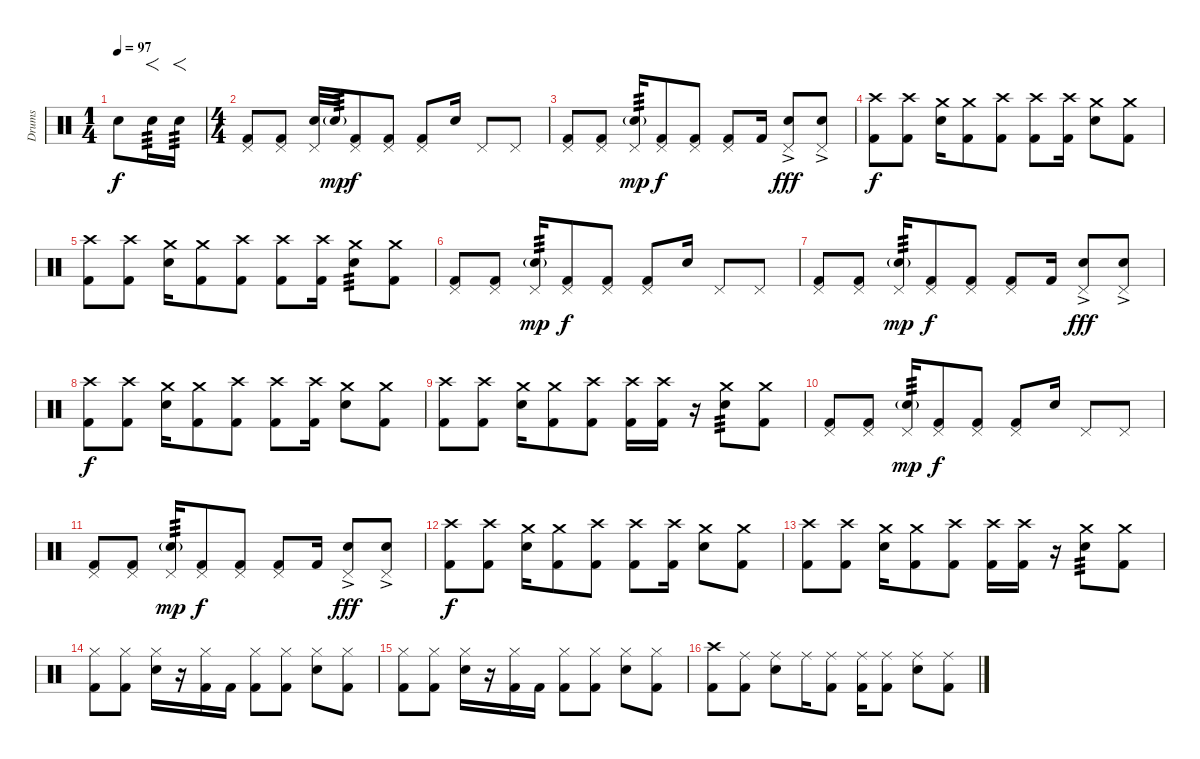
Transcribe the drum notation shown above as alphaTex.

\track ("Drums" "Drums") {instrument percussion}
\staff {score}
\articulation defaults
\ts (1 4)
\tempo 97
\clef neutral
\ks c "Snare (hit) 2".8{dy f} "Snare (hit) 2".16{f tp 3} "Snare (hit) 2".16{f tp 3}
|
\ts (4 4)
("Pedal Hi-Hat (hit)" "Kick (hit) 2").8 ("Pedal Hi-Hat (hit)" "Kick (hit) 2").8 ("Pedal Hi-Hat (hit)" "Snare (hit) 2").32 "Snare (hit) 2"{g}.32{tp 3 dy mp} ("Pedal Hi-Hat (hit)" "Kick (hit) 2").8{dy f} ("Pedal Hi-Hat (hit)" "Kick (hit) 2").8 ("Pedal Hi-Hat (hit)" "Kick (hit) 2").8 "Snare (hit) 2".16 "Pedal Hi-Hat (hit)".8 "Pedal Hi-Hat (hit)".8 |
("Pedal Hi-Hat (hit)" "Kick (hit) 2").8 ("Pedal Hi-Hat (hit)" "Kick (hit) 2").8 ("Pedal Hi-Hat (hit)" "Snare (hit) 2"{g}).16{tp 3 dy mp} ("Pedal Hi-Hat (hit)" "Kick (hit) 2").8{dy f} ("Pedal Hi-Hat (hit)" "Kick (hit) 2").8 ("Pedal Hi-Hat (hit)" "Kick (hit) 2").8 "Kick (hit) 2".16 ("Pedal Hi-Hat (hit)" "Snare (hit) 2"{ac}).8{dy fff} ("Pedal Hi-Hat (hit)" "Snare (hit) 2"{ac}).8 |
("Crash high (hit)" "Kick (hit) 2").8{dy f volume 16} ("Crash high (hit)" "Kick (hit) 2").8 ("Crash medium (hit)" "Snare (hit) 2").16 ("Crash medium (hit)" "Kick (hit) 2").8 ("Crash high (hit)" "Kick (hit) 2").8 ("Crash high (hit)" "Kick (hit) 2").8 ("Crash high (hit)" "Kick (hit) 2").16 ("Crash medium (hit)" "Snare (hit) 2").8 ("Crash medium (hit)" "Kick (hit) 2").8 |
("Crash high (hit)" "Kick (hit) 2").8 ("Crash high (hit)" "Kick (hit) 2").8 ("Crash medium (hit)" "Snare (hit) 2").16 ("Crash medium (hit)" "Kick (hit) 2").8 ("Crash high (hit)" "Kick (hit) 2").8 ("Crash high (hit)" "Kick (hit) 2").8 ("Crash high (hit)" "Kick (hit) 2").16 ("Crash medium (hit)" "Snare (hit) 2").8{tp 3} ("Crash medium (hit)" "Kick (hit) 2").8 |
("Pedal Hi-Hat (hit)" "Kick (hit) 2").8 ("Pedal Hi-Hat (hit)" "Kick (hit) 2").8 ("Pedal Hi-Hat (hit)" "Snare (hit) 2"{g}).16{tp 3 dy mp} ("Pedal Hi-Hat (hit)" "Kick (hit) 2").8{dy f} ("Pedal Hi-Hat (hit)" "Kick (hit) 2").8 ("Pedal Hi-Hat (hit)" "Kick (hit) 2").8 "Snare (hit) 2".16 "Pedal Hi-Hat (hit)".8 "Pedal Hi-Hat (hit)".8 |
("Pedal Hi-Hat (hit)" "Kick (hit) 2").8 ("Pedal Hi-Hat (hit)" "Kick (hit) 2").8 ("Pedal Hi-Hat (hit)" "Snare (hit) 2"{g}).16{tp 3 dy mp} ("Pedal Hi-Hat (hit)" "Kick (hit) 2").8{dy f} ("Pedal Hi-Hat (hit)" "Kick (hit) 2").8 ("Pedal Hi-Hat (hit)" "Kick (hit) 2").8 "Kick (hit) 2".16 ("Pedal Hi-Hat (hit)" "Snare (hit) 2"{ac}).8{dy fff} ("Pedal Hi-Hat (hit)" "Snare (hit) 2"{ac}).8 |
("Crash high (hit)" "Kick (hit) 2").8{dy f volume 16} ("Crash high (hit)" "Kick (hit) 2").8 ("Crash medium (hit)" "Snare (hit) 2").16 ("Crash medium (hit)" "Kick (hit) 2").8 ("Crash high (hit)" "Kick (hit) 2").8 ("Crash high (hit)" "Kick (hit) 2").8 ("Crash high (hit)" "Kick (hit) 2").16 ("Crash medium (hit)" "Snare (hit) 2").8 ("Crash medium (hit)" "Kick (hit) 2").8 |
("Crash high (hit)" "Kick (hit) 2").8 ("Crash high (hit)" "Kick (hit) 2").8 ("Crash medium (hit)" "Snare (hit) 2").16 ("Crash medium (hit)" "Kick (hit) 2").8 ("Crash high (hit)" "Kick (hit) 2").8 ("Crash high (hit)" "Kick (hit) 2").16 ("Crash high (hit)" "Kick (hit) 2").16 r.16 ("Crash medium (hit)" "Snare (hit) 2").8{tp 3} ("Crash medium (hit)" "Kick (hit) 2").8 |
("Pedal Hi-Hat (hit)" "Kick (hit) 2").8 ("Pedal Hi-Hat (hit)" "Kick (hit) 2").8 ("Pedal Hi-Hat (hit)" "Snare (hit) 2"{g}).16{tp 3 dy mp} ("Pedal Hi-Hat (hit)" "Kick (hit) 2").8{dy f} ("Pedal Hi-Hat (hit)" "Kick (hit) 2").8 ("Pedal Hi-Hat (hit)" "Kick (hit) 2").8 "Snare (hit) 2".16 "Pedal Hi-Hat (hit)".8 "Pedal Hi-Hat (hit)".8 |
("Pedal Hi-Hat (hit)" "Kick (hit) 2").8 ("Pedal Hi-Hat (hit)" "Kick (hit) 2").8 ("Pedal Hi-Hat (hit)" "Snare (hit) 2"{g}).16{tp 3 dy mp} ("Pedal Hi-Hat (hit)" "Kick (hit) 2").8{dy f} ("Pedal Hi-Hat (hit)" "Kick (hit) 2").8 ("Pedal Hi-Hat (hit)" "Kick (hit) 2").8 "Kick (hit) 2".16 ("Pedal Hi-Hat (hit)" "Snare (hit) 2"{ac}).8{dy fff} ("Pedal Hi-Hat (hit)" "Snare (hit) 2"{ac}).8 |
("Crash high (hit)" "Kick (hit) 2").8{dy f volume 16} ("Crash high (hit)" "Kick (hit) 2").8 ("Crash medium (hit)" "Snare (hit) 2").16 ("Crash medium (hit)" "Kick (hit) 2").8 ("Crash high (hit)" "Kick (hit) 2").8 ("Crash high (hit)" "Kick (hit) 2").8 ("Crash high (hit)" "Kick (hit) 2").16 ("Crash medium (hit)" "Snare (hit) 2").8 ("Crash medium (hit)" "Kick (hit) 2").8 |
("Crash high (hit)" "Kick (hit) 2").8 ("Crash high (hit)" "Kick (hit) 2").8 ("Crash medium (hit)" "Snare (hit) 2").16 ("Crash medium (hit)" "Kick (hit) 2").8 ("Crash high (hit)" "Kick (hit) 2").8 ("Crash high (hit)" "Kick (hit) 2").16 ("Crash high (hit)" "Kick (hit) 2").16 r.16 ("Crash medium (hit)" "Snare (hit) 2").8{tp 3} ("Crash medium (hit)" "Kick (hit) 2").8 |
("Hi-Hat (closed)" "Kick (hit) 2").8 ("Hi-Hat (closed)" "Kick (hit) 2").8 ("Hi-Hat (closed)" "Snare (hit) 2").16 r.16 ("Hi-Hat (closed)" "Kick (hit) 2").16 "Kick (hit) 2".16 ("Hi-Hat (closed)" "Kick (hit) 2").8 ("Hi-Hat (closed)" "Kick (hit) 2").8 ("Hi-Hat (closed)" "Snare (hit) 2").8 ("Hi-Hat (closed)" "Kick (hit) 2").8 |
("Hi-Hat (closed)" "Kick (hit) 2").8 ("Hi-Hat (closed)" "Kick (hit) 2").8 ("Hi-Hat (closed)" "Snare (hit) 2").16 r.16 ("Hi-Hat (closed)" "Kick (hit) 2").16 "Kick (hit) 2".16 ("Hi-Hat (closed)" "Kick (hit) 2").8 ("Hi-Hat (closed)" "Kick (hit) 2").8 ("Hi-Hat (closed)" "Snare (hit) 2").8 ("Hi-Hat (closed)" "Kick (hit) 2").8 |
("Crash high (hit)" "Kick (hit) 2").8 ("Ride (middle)" "Kick (hit) 2").8 ("Ride (middle)" "Snare (hit) 2").8 "Ride (middle)".16 ("Ride (middle)" "Kick (hit) 2").8 ("Ride (middle)" "Kick (hit) 2").16 ("Ride (middle)" "Kick (hit) 2").8 ("Ride (middle)" "Snare (hit) 2").8 ("Ride (middle)" "Kick (hit) 2").8
